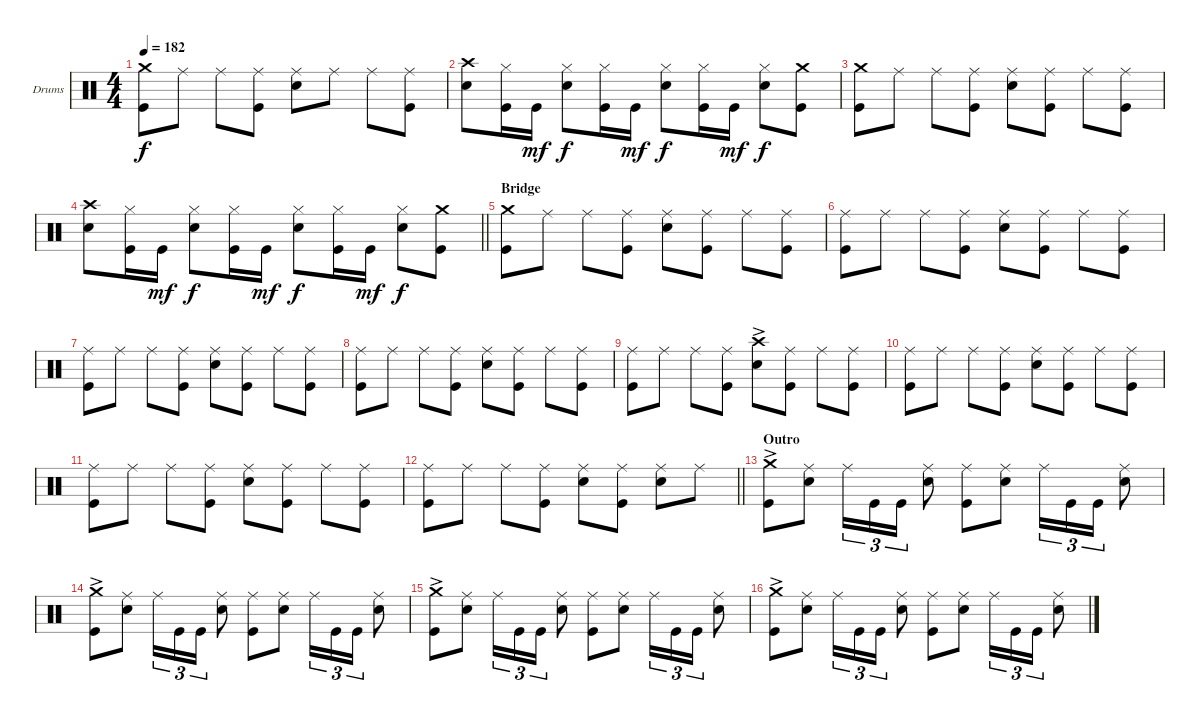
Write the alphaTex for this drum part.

\bracketExtendMode groupsimilarinstruments
\firstSystemTrackNameOrientation horizontal
\otherSystemsTrackNameOrientation horizontal
\track ("Drums" "Drums") {instrument percussion}
\staff {score}
\articulation defaults
\ts (4 4)
\tempo 182
\clef neutral
\ks c
("Kick (hit)" "Crash medium (hit)").8{dy f} "Ride (middle)".8 "Ride (middle)".8 ("Kick (hit)" "Ride (middle)").8 ("Snare (hit) 2" "Ride (middle)").8 "Ride (middle)".8 "Ride (middle)".8 ("Ride (middle)" "Kick (hit)").8 |
("Snare (hit) 2" "Crash high (hit)").8 ("Hi-Hat (closed)" "Kick (hit)").16 "Kick (hit)".16{dy mf} ("Snare (hit) 2" "Hi-Hat (closed)").8{dy f} ("Hi-Hat (closed)" "Kick (hit)").16 "Kick (hit)".16{dy mf} ("Snare (hit) 2" "Hi-Hat (closed)").8{dy f} ("Hi-Hat (closed)" "Kick (hit)").16 "Kick (hit)".16{dy mf} ("Snare (hit) 2" "Hi-Hat (closed)").8{dy f} ("Kick (hit)" "Crash medium (hit)").8 |
("Kick (hit)" "Crash medium (hit)").8 "Ride (middle)".8 "Ride (middle)".8 ("Kick (hit)" "Ride (middle)").8 ("Snare (hit) 2" "Ride (middle)").8 ("Ride (middle)" "Kick (hit)").8 "Ride (middle)".8 ("Ride (middle)" "Kick (hit)").8 |
\barLineRight lightlight
("Snare (hit) 2" "Crash high (hit)").8 ("Hi-Hat (closed)" "Kick (hit)").16 "Kick (hit)".16{dy mf} ("Snare (hit) 2" "Hi-Hat (closed)").8{dy f} ("Hi-Hat (closed)" "Kick (hit)").16 "Kick (hit)".16{dy mf} ("Snare (hit) 2" "Hi-Hat (closed)").8{dy f} ("Hi-Hat (closed)" "Kick (hit)").16 "Kick (hit)".16{dy mf} ("Snare (hit) 2" "Hi-Hat (closed)").8{dy f} ("Kick (hit)" "Crash medium (hit)").8 |
\section ("" "Bridge")
("Kick (hit)" "Crash medium (hit)").8 "Ride (middle)".8 "Ride (middle)".8 ("Kick (hit)" "Ride (middle)").8 ("Snare (hit) 2" "Ride (middle)").8 ("Ride (middle)" "Kick (hit)").8 "Ride (middle)".8 ("Ride (middle)" "Kick (hit)").8 |
("Kick (hit)" "Ride (middle)").8 "Ride (middle)".8 "Ride (middle)".8 ("Kick (hit)" "Ride (middle)").8 ("Snare (hit) 2" "Ride (middle)").8 ("Ride (middle)" "Kick (hit)").8 "Ride (middle)".8 ("Ride (middle)" "Kick (hit)").8 |
("Kick (hit)" "Ride (middle)").8 "Ride (middle)".8 "Ride (middle)".8 ("Kick (hit)" "Ride (middle)").8 ("Snare (hit) 2" "Ride (middle)").8 ("Ride (middle)" "Kick (hit)").8 "Ride (middle)".8 ("Ride (middle)" "Kick (hit)").8 |
("Kick (hit)" "Ride (middle)").8 "Ride (middle)".8 "Ride (middle)".8 ("Kick (hit)" "Ride (middle)").8 ("Snare (hit) 2" "Ride (middle)").8 ("Ride (middle)" "Kick (hit)").8 "Ride (middle)".8 ("Ride (middle)" "Kick (hit)").8 |
("Kick (hit)" "Ride (middle)").8 "Ride (middle)".8 "Ride (middle)".8 ("Kick (hit)" "Ride (middle)").8 ("Snare (hit) 2"{ac} "Crash high (hit)"{ac}).8 ("Ride (middle)" "Kick (hit)").8 "Ride (middle)".8 ("Ride (middle)" "Kick (hit)").8 |
("Kick (hit)" "Ride (middle)").8 "Ride (middle)".8 "Ride (middle)".8 ("Kick (hit)" "Ride (middle)").8 ("Snare (hit) 2" "Ride (middle)").8 ("Ride (middle)" "Kick (hit)").8 "Ride (middle)".8 ("Ride (middle)" "Kick (hit)").8 |
("Kick (hit)" "Ride (middle)").8 "Ride (middle)".8 "Ride (middle)".8 ("Kick (hit)" "Ride (middle)").8 ("Snare (hit) 2" "Ride (middle)").8 ("Ride (middle)" "Kick (hit)").8 "Ride (middle)".8 ("Ride (middle)" "Kick (hit)").8 |
\barLineRight lightlight
("Kick (hit)" "Ride (middle)").8 "Ride (middle)".8 "Ride (middle)".8 ("Kick (hit)" "Ride (middle)").8 ("Snare (hit) 2" "Ride (middle)").8 ("Ride (middle)" "Kick (hit)").8 ("Ride (middle)" "Snare (hit) 2").8 "Ride (middle)".8 |
\section ("" "Outro")
("Kick (hit)" "Crash medium (hit)"{ac}).8 ("Snare (hit) 2" "Ride (middle)").8 "Ride (middle)".16{tu (3 2)} "Kick (hit)".16{tu (3 2)} "Kick (hit)".16{tu (3 2)} ("Snare (hit) 2" "Ride (middle)").8 ("Kick (hit)" "Ride (middle)").8 ("Snare (hit) 2" "Ride (middle)").8 "Ride (middle)".16{tu (3 2)} "Kick (hit)".16{tu (3 2)} "Kick (hit)".16{tu (3 2)} ("Snare (hit) 2" "Ride (middle)").8 |
("Kick (hit)" "Crash medium (hit)"{ac}).8 ("Snare (hit) 2" "Ride (middle)").8 "Ride (middle)".16{tu (3 2)} "Kick (hit)".16{tu (3 2)} "Kick (hit)".16{tu (3 2)} ("Snare (hit) 2" "Ride (middle)").8 ("Kick (hit)" "Ride (middle)").8 ("Snare (hit) 2" "Ride (middle)").8 "Ride (middle)".16{tu (3 2)} "Kick (hit)".16{tu (3 2)} "Kick (hit)".16{tu (3 2)} ("Snare (hit) 2" "Ride (middle)").8 |
("Kick (hit)" "Crash medium (hit)"{ac}).8 ("Snare (hit) 2" "Ride (middle)").8 "Ride (middle)".16{tu (3 2)} "Kick (hit)".16{tu (3 2)} "Kick (hit)".16{tu (3 2)} ("Snare (hit) 2" "Ride (middle)").8 ("Kick (hit)" "Ride (middle)").8 ("Snare (hit) 2" "Ride (middle)").8 "Ride (middle)".16{tu (3 2)} "Kick (hit)".16{tu (3 2)} "Kick (hit)".16{tu (3 2)} ("Snare (hit) 2" "Ride (middle)").8 |
("Kick (hit)" "Crash medium (hit)"{ac}).8 ("Snare (hit) 2" "Ride (middle)").8 "Ride (middle)".16{tu (3 2)} "Kick (hit)".16{tu (3 2)} "Kick (hit)".16{tu (3 2)} ("Snare (hit) 2" "Ride (middle)").8 ("Kick (hit)" "Ride (middle)").8 ("Snare (hit) 2" "Ride (middle)").8 "Ride (middle)".16{tu (3 2)} "Kick (hit)".16{tu (3 2)} "Kick (hit)".16{tu (3 2)} ("Snare (hit) 2" "Ride (middle)").8
